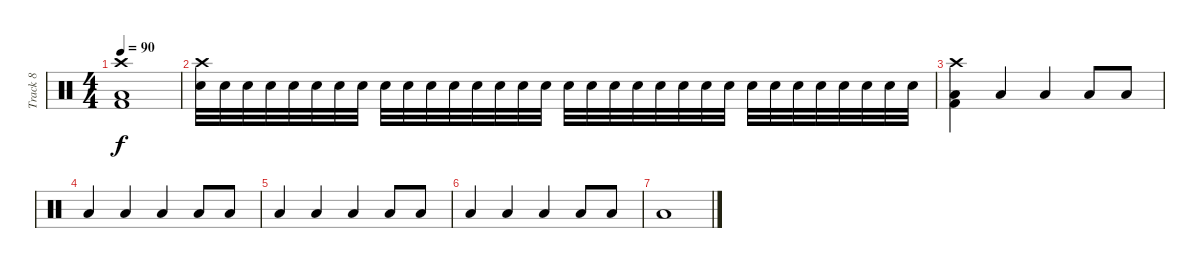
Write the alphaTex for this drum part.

\track ("Track 8" "Track 8") {instrument percussion}
\staff {score}
\articulation defaults
\ts (4 4)
\tempo 90
\clef neutral
\ks c
("Crash high (hit)" "Low Tom (hit)" "Kick (hit) 2").1{dy f} |
("Crash high (hit)" "Snare (hit) 2").32 "Snare (hit) 2".32{volume 7} "Snare (hit) 2".32 "Snare (hit) 2".32 "Snare (hit) 2".32 "Snare (hit) 2".32 "Snare (hit) 2".32 "Snare (hit) 2".32 "Snare (hit) 2".32{volume 13} "Snare (hit) 2".32 "Snare (hit) 2".32 "Snare (hit) 2".32 "Snare (hit) 2".32 "Snare (hit) 2".32 "Snare (hit) 2".32 "Snare (hit) 2".32 "Snare (hit) 2".32 "Snare (hit) 2".32 "Snare (hit) 2".32 "Snare (hit) 2".32 "Snare (hit) 2".32 "Snare (hit) 2".32 "Snare (hit) 2".32 "Snare (hit) 2".32 "Snare (hit) 2".32 "Snare (hit) 2".32 "Snare (hit) 2".32 "Snare (hit) 2".32 "Snare (hit) 2".32 "Snare (hit) 2".32 "Snare (hit) 2".32 "Snare (hit) 2".32 |
("Crash high (hit)" "Low Tom (hit)" "Kick (hit) 2").4 "Low Tom (hit)".4 "Low Tom (hit)".4 "Low Tom (hit)".8 "Low Tom (hit)".8 |
"Low Tom (hit)".4 "Low Tom (hit)".4 "Low Tom (hit)".4 "Low Tom (hit)".8 "Low Tom (hit)".8 |
"Low Tom (hit)".4{volume 0} "Low Tom (hit)".4 "Low Tom (hit)".4 "Low Tom (hit)".8 "Low Tom (hit)".8 |
"Low Tom (hit)".4 "Low Tom (hit)".4 "Low Tom (hit)".4 "Low Tom (hit)".8 "Low Tom (hit)".8 |
"Low Tom (hit)".1
